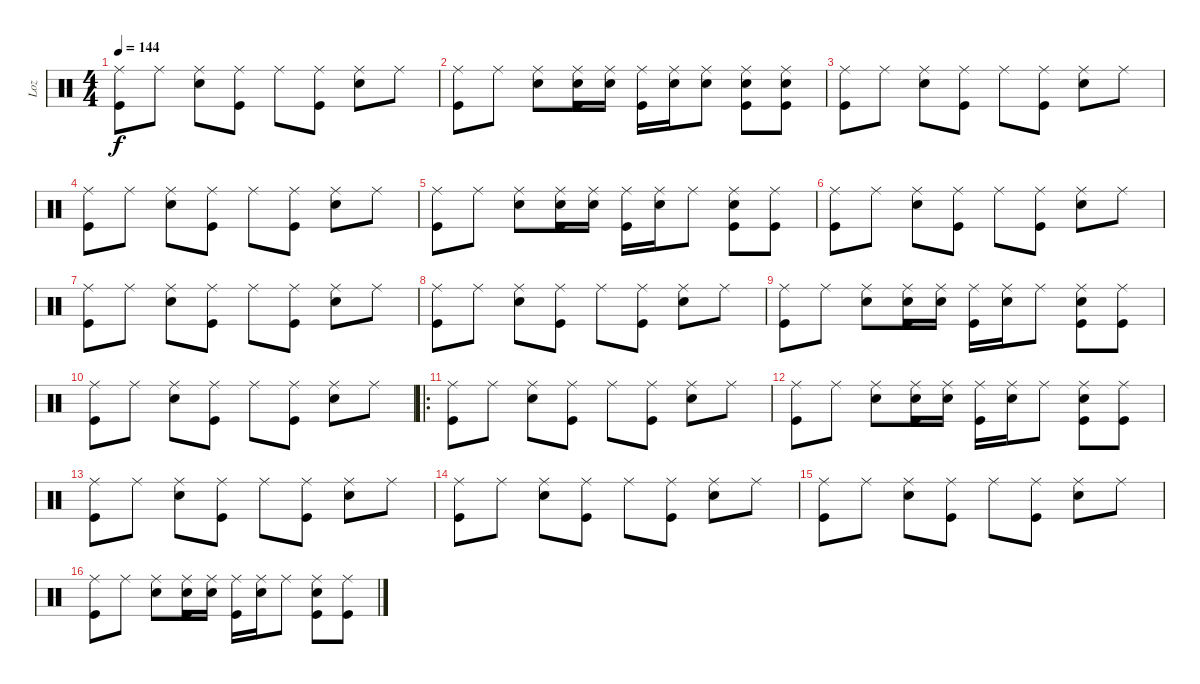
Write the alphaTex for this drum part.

\track ("Loz" "Loz") {instrument percussion}
\staff {score}
\articulation defaults
\ts (4 4)
\tempo 144
\clef neutral
\ks c
("Ride (middle)" "Kick (hit)").8{dy f} "Ride (middle)".8 ("Ride (middle)" "Electric Snare (hit)").8 ("Ride (middle)" "Kick (hit)").8 "Ride (middle)".8 ("Ride (middle)" "Kick (hit)").8 ("Ride (middle)" "Electric Snare (hit)").8 "Ride (middle)".8 |
("Ride (middle)" "Kick (hit)").8 "Ride (middle)".8 ("Ride (middle)" "Electric Snare (hit)").8 ("Ride (middle)" "Electric Snare (hit)" "Kick (hit)").16 ("Ride (middle)" "Electric Snare (hit)").16 ("Ride (middle)" "Kick (hit)").16 ("Ride (middle)" "Electric Snare (hit)").16 ("Ride (middle)" "Electric Snare (hit)").8 ("Ride (middle)" "Electric Snare (hit)" "Kick (hit)").8 ("Ride (middle)" "Electric Snare (hit)" "Kick (hit)").8 |
("Ride (middle)" "Kick (hit)").8 "Ride (middle)".8 ("Ride (middle)" "Electric Snare (hit)").8 ("Ride (middle)" "Kick (hit)").8 "Ride (middle)".8 ("Ride (middle)" "Kick (hit)").8 ("Ride (middle)" "Electric Snare (hit)").8 "Ride (middle)".8 |
("Ride (middle)" "Kick (hit)").8 "Ride (middle)".8 ("Ride (middle)" "Electric Snare (hit)").8 ("Ride (middle)" "Kick (hit)").8 "Ride (middle)".8 ("Ride (middle)" "Kick (hit)").8 ("Ride (middle)" "Electric Snare (hit)").8 "Ride (middle)".8 |
("Ride (middle)" "Kick (hit)").8 "Ride (middle)".8 ("Ride (middle)" "Electric Snare (hit)").8 ("Ride (middle)" "Electric Snare (hit)" "Kick (hit)").16 ("Ride (middle)" "Electric Snare (hit)").16 ("Ride (middle)" "Kick (hit)").16 ("Ride (middle)" "Electric Snare (hit)").16 "Ride (middle)".8 ("Ride (middle)" "Electric Snare (hit)" "Kick (hit)").8 ("Ride (middle)" "Kick (hit)").8 |
("Ride (middle)" "Kick (hit)").8 "Ride (middle)".8 ("Ride (middle)" "Electric Snare (hit)").8 ("Ride (middle)" "Kick (hit)").8 "Ride (middle)".8 ("Ride (middle)" "Kick (hit)").8 ("Ride (middle)" "Electric Snare (hit)").8 "Ride (middle)".8 |
("Ride (middle)" "Kick (hit)").8 "Ride (middle)".8 ("Ride (middle)" "Electric Snare (hit)").8 ("Ride (middle)" "Kick (hit)").8 "Ride (middle)".8 ("Ride (middle)" "Kick (hit)").8 ("Ride (middle)" "Electric Snare (hit)").8 "Ride (middle)".8 |
("Ride (middle)" "Kick (hit)").8 "Ride (middle)".8 ("Ride (middle)" "Electric Snare (hit)").8 ("Ride (middle)" "Kick (hit)").8 "Ride (middle)".8 ("Ride (middle)" "Kick (hit)").8 ("Ride (middle)" "Electric Snare (hit)").8 "Ride (middle)".8 |
("Ride (middle)" "Kick (hit)").8 "Ride (middle)".8 ("Ride (middle)" "Electric Snare (hit)").8 ("Ride (middle)" "Electric Snare (hit)" "Kick (hit)").16 ("Ride (middle)" "Electric Snare (hit)").16 ("Ride (middle)" "Kick (hit)").16 ("Ride (middle)" "Electric Snare (hit)").16 "Ride (middle)".8 ("Ride (middle)" "Electric Snare (hit)" "Kick (hit)").8 ("Ride (middle)" "Kick (hit)").8 |
("Ride (middle)" "Kick (hit)").8 "Ride (middle)".8 ("Ride (middle)" "Electric Snare (hit)").8 ("Ride (middle)" "Kick (hit)").8 "Ride (middle)".8 ("Ride (middle)" "Kick (hit)").8 ("Ride (middle)" "Electric Snare (hit)").8 "Ride (middle)".8 |
\ro
("Ride (middle)" "Kick (hit)").8 "Ride (middle)".8 ("Ride (middle)" "Electric Snare (hit)").8 ("Ride (middle)" "Kick (hit)").8 "Ride (middle)".8 ("Ride (middle)" "Kick (hit)").8 ("Ride (middle)" "Electric Snare (hit)").8 "Ride (middle)".8 |
("Ride (middle)" "Kick (hit)").8 "Ride (middle)".8 ("Ride (middle)" "Electric Snare (hit)").8 ("Ride (middle)" "Electric Snare (hit)" "Kick (hit)").16 ("Ride (middle)" "Electric Snare (hit)").16 ("Ride (middle)" "Kick (hit)").16 ("Ride (middle)" "Electric Snare (hit)").16 "Ride (middle)".8 ("Ride (middle)" "Electric Snare (hit)" "Kick (hit)").8 ("Ride (middle)" "Kick (hit)").8 |
("Ride (middle)" "Kick (hit)").8 "Ride (middle)".8 ("Ride (middle)" "Electric Snare (hit)").8 ("Ride (middle)" "Kick (hit)").8 "Ride (middle)".8 ("Ride (middle)" "Kick (hit)").8 ("Ride (middle)" "Electric Snare (hit)").8 "Ride (middle)".8 |
("Ride (middle)" "Kick (hit)").8 "Ride (middle)".8 ("Ride (middle)" "Electric Snare (hit)").8 ("Ride (middle)" "Kick (hit)").8 "Ride (middle)".8 ("Ride (middle)" "Kick (hit)").8 ("Ride (middle)" "Electric Snare (hit)").8 "Ride (middle)".8 |
("Ride (middle)" "Kick (hit)").8 "Ride (middle)".8 ("Ride (middle)" "Electric Snare (hit)").8 ("Ride (middle)" "Kick (hit)").8 "Ride (middle)".8 ("Ride (middle)" "Kick (hit)").8 ("Ride (middle)" "Electric Snare (hit)").8 "Ride (middle)".8 |
("Ride (middle)" "Kick (hit)").8 "Ride (middle)".8 ("Ride (middle)" "Electric Snare (hit)").8 ("Ride (middle)" "Electric Snare (hit)" "Kick (hit)").16 ("Ride (middle)" "Electric Snare (hit)").16 ("Ride (middle)" "Kick (hit)").16 ("Ride (middle)" "Electric Snare (hit)").16 "Ride (middle)".8 ("Ride (middle)" "Electric Snare (hit)" "Kick (hit)").8 ("Ride (middle)" "Kick (hit)").8
